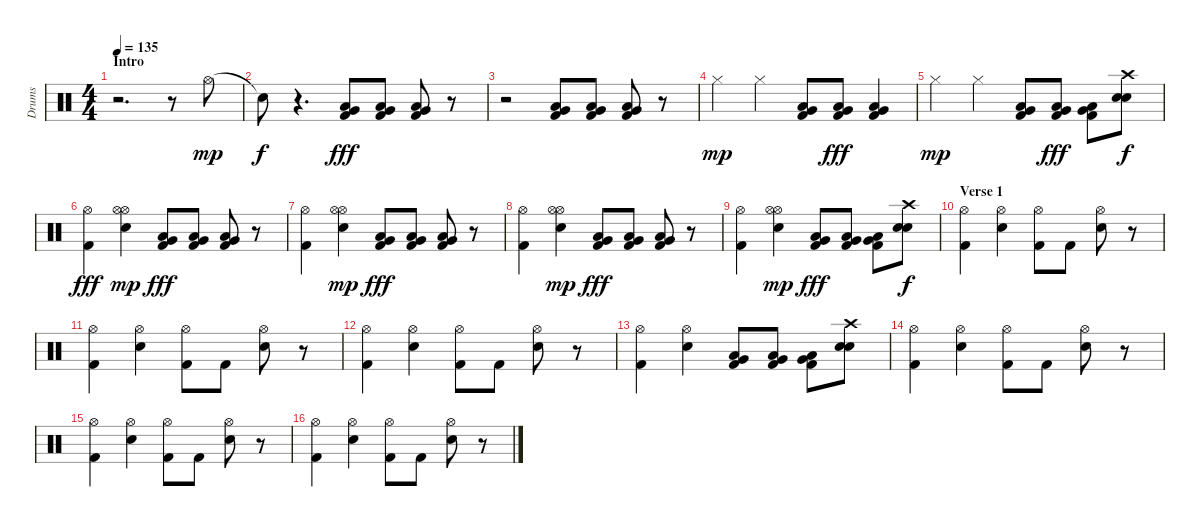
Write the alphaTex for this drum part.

\track ("Drums" "Drums") {instrument percussion}
\staff {score}
\articulation defaults
\ts (4 4)
\section ("" "Intro")
\tempo 135
\clef neutral
\ks c
r.2{d dy mp} r.8 "Hi-Hat (open)".8 |
"Snare (hit)"{t}.8{dy f} r.4{d} ("Kick (hit) 2" "Very Low Tom (hit)" "Low Tom (hit)").8{dy fff} ("Kick (hit) 2" "Very Low Tom (hit)" "Low Tom (hit)").8 ("Kick (hit) 2" "Very Low Tom (hit)" "Low Tom (hit)").8 r.8 |
r.2 ("Kick (hit) 2" "Very Low Tom (hit)" "Low Tom (hit)").8 ("Kick (hit) 2" "Very Low Tom (hit)" "Low Tom (hit)").8 ("Kick (hit) 2" "Very Low Tom (hit)" "Low Tom (hit)").8 r.8 |
"Hi-Hat (closed)".4{dy mp} "Hi-Hat (closed)".4 ("Kick (hit) 2" "Very Low Tom (hit)" "Low Tom (hit)").8 ("Kick (hit) 2" "Very Low Tom (hit)" "Low Tom (hit)").8{dy fff} ("Kick (hit) 2" "Very Low Tom (hit)" "Low Tom (hit)").4 |
"Hi-Hat (closed)".4{dy mp} "Hi-Hat (closed)".4 ("Kick (hit) 2" "Very Low Tom (hit)" "Low Tom (hit)").8 ("Kick (hit) 2" "Very Low Tom (hit)" "Low Tom (hit)").8{dy fff} ("Kick (hit) 2" "Very Low Tom (hit)" "Low Tom (hit)").8 ("Crash high (hit)" "Electric Snare (hit)" "Electric Snare (hit)").8{dy f} |
("Kick (hit) 2" "Hi-Hat (open)").4{dy fff} ("Electric Snare (hit)" "Hi-Hat (open)" "Hi-Hat (open)").4{dy mp} ("Kick (hit) 2" "Very Low Tom (hit)" "Low Tom (hit)").8{dy fff} ("Kick (hit) 2" "Very Low Tom (hit)" "Low Tom (hit)").8 ("Kick (hit) 2" "Very Low Tom (hit)" "Low Tom (hit)").8 r.8 |
("Kick (hit) 2" "Hi-Hat (open)").4 ("Electric Snare (hit)" "Hi-Hat (open)" "Hi-Hat (open)").4{dy mp} ("Kick (hit) 2" "Very Low Tom (hit)" "Low Tom (hit)").8{dy fff} ("Kick (hit) 2" "Very Low Tom (hit)" "Low Tom (hit)").8 ("Kick (hit) 2" "Very Low Tom (hit)" "Low Tom (hit)").8 r.8 |
("Kick (hit) 2" "Hi-Hat (open)").4 ("Electric Snare (hit)" "Hi-Hat (open)" "Hi-Hat (open)").4{dy mp} ("Kick (hit) 2" "Very Low Tom (hit)" "Low Tom (hit)").8{dy fff} ("Kick (hit) 2" "Very Low Tom (hit)" "Low Tom (hit)").8 ("Kick (hit) 2" "Very Low Tom (hit)" "Low Tom (hit)").8 r.8 |
("Kick (hit) 2" "Hi-Hat (open)").4 ("Electric Snare (hit)" "Hi-Hat (open)" "Hi-Hat (open)").4{dy mp} ("Kick (hit) 2" "Very Low Tom (hit)" "Low Tom (hit)").8{dy fff} ("Kick (hit) 2" "Very Low Tom (hit)" "Low Tom (hit)").8 ("Kick (hit) 2" "Very Low Tom (hit)" "Low Tom (hit)").8 ("Crash high (hit)" "Electric Snare (hit)" "Electric Snare (hit)").8{dy f} |
\section ("" "Verse 1")
("Hi-Hat (open)" "Kick (hit) 2").4 ("Hi-Hat (open)" "Electric Snare (hit)").4 ("Hi-Hat (open)" "Kick (hit) 2").8 "Kick (hit) 2".8 ("Hi-Hat (open)" "Snare (hit) 2").8 r.8 |
("Hi-Hat (open)" "Kick (hit) 2").4 ("Hi-Hat (open)" "Electric Snare (hit)").4 ("Hi-Hat (open)" "Kick (hit) 2").8 "Kick (hit) 2".8 ("Hi-Hat (open)" "Snare (hit) 2").8 r.8 |
("Hi-Hat (open)" "Kick (hit) 2").4 ("Hi-Hat (open)" "Electric Snare (hit)").4 ("Hi-Hat (open)" "Kick (hit) 2").8 "Kick (hit) 2".8 ("Hi-Hat (open)" "Snare (hit) 2").8 r.8 |
("Hi-Hat (open)" "Kick (hit) 2").4 ("Hi-Hat (open)" "Electric Snare (hit)").4 ("Kick (hit) 2" "Low Tom (hit)" "Very Low Tom (hit)").8 ("Kick (hit) 2" "Low Tom (hit)" "Very Low Tom (hit)").8 ("Kick (hit) 2" "Low Tom (hit)" "Very Low Tom (hit)").8 ("Crash high (hit)" "Electric Snare (hit)" "Electric Snare (hit)").8 |
("Hi-Hat (open)" "Kick (hit) 2").4 ("Hi-Hat (open)" "Electric Snare (hit)").4 ("Hi-Hat (open)" "Kick (hit) 2").8 "Kick (hit) 2".8 ("Hi-Hat (open)" "Snare (hit) 2").8 r.8 |
("Hi-Hat (open)" "Kick (hit) 2").4 ("Hi-Hat (open)" "Electric Snare (hit)").4 ("Hi-Hat (open)" "Kick (hit) 2").8 "Kick (hit) 2".8 ("Hi-Hat (open)" "Snare (hit) 2").8 r.8 |
("Hi-Hat (open)" "Kick (hit) 2").4 ("Hi-Hat (open)" "Electric Snare (hit)").4 ("Hi-Hat (open)" "Kick (hit) 2").8 "Kick (hit) 2".8 ("Hi-Hat (open)" "Snare (hit) 2").8 r.8
